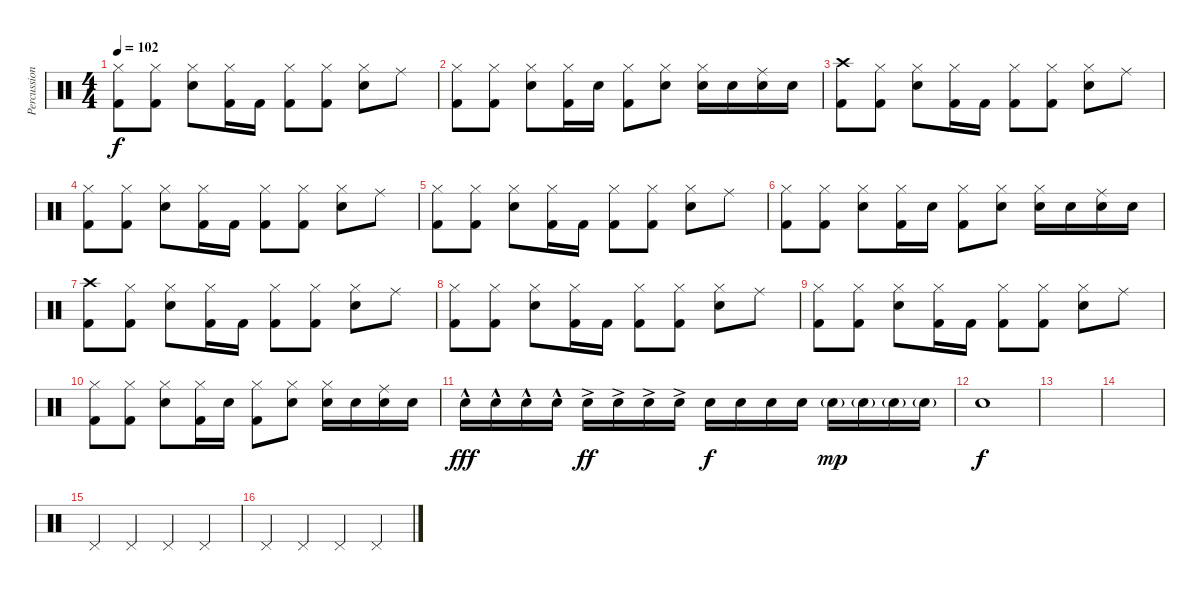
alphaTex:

\track ("Percussion" "Percussion") {instrument percussion}
\staff {score}
\articulation defaults
\ts (4 4)
\tempo 102
\clef neutral
\ks c
("Hi-Hat (closed)" "Kick (hit) 2").8{dy f} ("Hi-Hat (closed)" "Kick (hit) 2").8 ("Hi-Hat (closed)" "Snare (hit) 2").8 ("Hi-Hat (closed)" "Kick (hit) 2").16 "Kick (hit) 2".16 ("Hi-Hat (closed)" "Kick (hit) 2").8 ("Hi-Hat (closed)" "Kick (hit) 2").8 ("Hi-Hat (closed)" "Snare (hit) 2").8 "Ride (middle)".8 |
("Hi-Hat (closed)" "Kick (hit) 2").8 ("Hi-Hat (closed)" "Kick (hit) 2").8 ("Hi-Hat (closed)" "Snare (hit) 2").8 ("Hi-Hat (closed)" "Kick (hit) 2").16 "Snare (hit) 2".16 ("Hi-Hat (closed)" "Kick (hit) 2").8 ("Hi-Hat (closed)" "Snare (hit) 2").8 ("Hi-Hat (closed)" "Snare (hit) 2").16 "Snare (hit) 2".16 ("Ride (middle)" "Snare (hit) 2").16 "Snare (hit) 2".16 |
("Crash high (hit)" "Kick (hit) 2").8 ("Hi-Hat (closed)" "Kick (hit) 2").8 ("Hi-Hat (closed)" "Snare (hit) 2").8 ("Hi-Hat (closed)" "Kick (hit) 2").16 "Kick (hit) 2".16 ("Hi-Hat (closed)" "Kick (hit) 2").8 ("Hi-Hat (closed)" "Kick (hit) 2").8 ("Hi-Hat (closed)" "Snare (hit) 2").8 "Ride (middle)".8 |
("Hi-Hat (closed)" "Kick (hit) 2").8 ("Hi-Hat (closed)" "Kick (hit) 2").8 ("Hi-Hat (closed)" "Snare (hit) 2").8 ("Hi-Hat (closed)" "Kick (hit) 2").16 "Kick (hit) 2".16 ("Hi-Hat (closed)" "Kick (hit) 2").8 ("Hi-Hat (closed)" "Kick (hit) 2").8 ("Hi-Hat (closed)" "Snare (hit) 2").8 "Ride (middle)".8 |
("Hi-Hat (closed)" "Kick (hit) 2").8 ("Hi-Hat (closed)" "Kick (hit) 2").8 ("Hi-Hat (closed)" "Snare (hit) 2").8 ("Hi-Hat (closed)" "Kick (hit) 2").16 "Kick (hit) 2".16 ("Hi-Hat (closed)" "Kick (hit) 2").8 ("Hi-Hat (closed)" "Kick (hit) 2").8 ("Hi-Hat (closed)" "Snare (hit) 2").8 "Ride (middle)".8 |
("Hi-Hat (closed)" "Kick (hit) 2").8 ("Hi-Hat (closed)" "Kick (hit) 2").8 ("Hi-Hat (closed)" "Snare (hit) 2").8 ("Hi-Hat (closed)" "Kick (hit) 2").16 "Snare (hit) 2".16 ("Hi-Hat (closed)" "Kick (hit) 2").8 ("Hi-Hat (closed)" "Snare (hit) 2").8 ("Hi-Hat (closed)" "Snare (hit) 2").16 "Snare (hit) 2".16 ("Ride (middle)" "Snare (hit) 2").16 "Snare (hit) 2".16 |
("Crash high (hit)" "Kick (hit) 2").8 ("Hi-Hat (closed)" "Kick (hit) 2").8 ("Hi-Hat (closed)" "Snare (hit) 2").8 ("Hi-Hat (closed)" "Kick (hit) 2").16 "Kick (hit) 2".16 ("Hi-Hat (closed)" "Kick (hit) 2").8 ("Hi-Hat (closed)" "Kick (hit) 2").8 ("Hi-Hat (closed)" "Snare (hit) 2").8 "Ride (middle)".8 |
("Hi-Hat (closed)" "Kick (hit) 2").8 ("Hi-Hat (closed)" "Kick (hit) 2").8 ("Hi-Hat (closed)" "Snare (hit) 2").8 ("Hi-Hat (closed)" "Kick (hit) 2").16 "Kick (hit) 2".16 ("Hi-Hat (closed)" "Kick (hit) 2").8 ("Hi-Hat (closed)" "Kick (hit) 2").8 ("Hi-Hat (closed)" "Snare (hit) 2").8 "Ride (middle)".8 |
("Hi-Hat (closed)" "Kick (hit) 2").8 ("Hi-Hat (closed)" "Kick (hit) 2").8 ("Hi-Hat (closed)" "Snare (hit) 2").8 ("Hi-Hat (closed)" "Kick (hit) 2").16 "Kick (hit) 2".16 ("Hi-Hat (closed)" "Kick (hit) 2").8 ("Hi-Hat (closed)" "Kick (hit) 2").8 ("Hi-Hat (closed)" "Snare (hit) 2").8 "Ride (middle)".8 |
("Hi-Hat (closed)" "Kick (hit) 2").8 ("Hi-Hat (closed)" "Kick (hit) 2").8 ("Hi-Hat (closed)" "Snare (hit) 2").8 ("Hi-Hat (closed)" "Kick (hit) 2").16 "Snare (hit) 2".16 ("Hi-Hat (closed)" "Kick (hit) 2").8 ("Hi-Hat (closed)" "Snare (hit) 2").8 ("Hi-Hat (closed)" "Snare (hit) 2").16 "Snare (hit) 2".16 ("Ride (middle)" "Snare (hit) 2").16 "Snare (hit) 2".16 |
"Snare (hit) 2"{hac}.16{dy fff} "Snare (hit) 2"{hac}.16 "Snare (hit) 2"{hac}.16 "Snare (hit) 2"{hac}.16 "Snare (hit) 2"{ac}.16{dy ff} "Snare (hit) 2"{ac}.16 "Snare (hit) 2"{ac}.16 "Snare (hit) 2"{ac}.16 "Snare (hit) 2".16{dy f} "Snare (hit) 2".16 "Snare (hit) 2".16 "Snare (hit) 2".16 "Snare (hit) 2"{g}.16{dy mp} "Snare (hit) 2"{g}.16 "Snare (hit) 2"{g}.16 "Snare (hit) 2"{g}.16 |
"Snare (hit) 2".1{dy f} |
|
|
"Pedal Hi-Hat (hit)".4 "Pedal Hi-Hat (hit)".4 "Pedal Hi-Hat (hit)".4 "Pedal Hi-Hat (hit)".4 |
"Pedal Hi-Hat (hit)".4 "Pedal Hi-Hat (hit)".4 "Pedal Hi-Hat (hit)".4 "Pedal Hi-Hat (hit)".4
